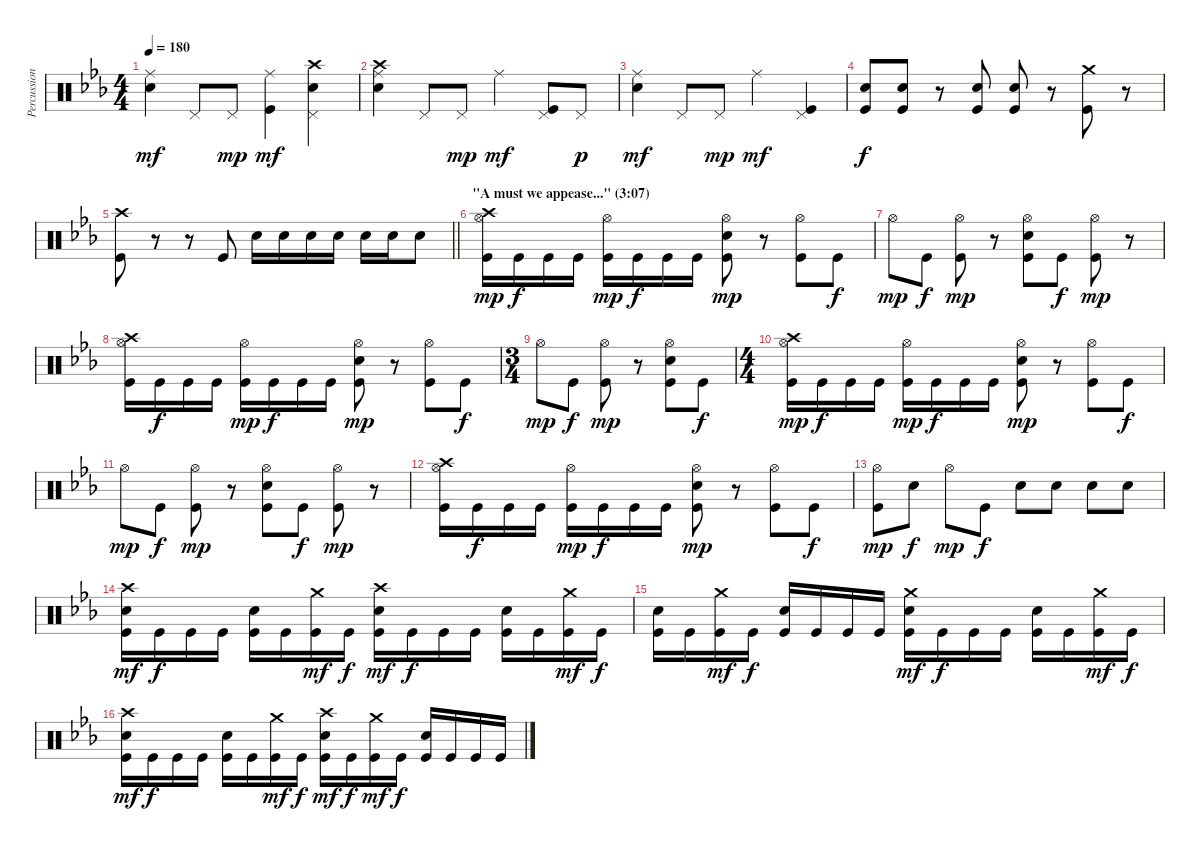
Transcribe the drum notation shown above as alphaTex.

\track ("Percussion" "Percussion") {instrument percussion}
\staff {score}
\articulation defaults
\ts (4 4)
\tempo 180
\clef neutral
\ks cminor
("Ride (middle)" "Snare (hit) 2").4{dy mf} "Pedal Hi-Hat (hit)".8 "Pedal Hi-Hat (hit)".8{dy mp} ("Ride (middle)" "Kick (hit)").4{dy mf} ("Crash high (hit)" "Pedal Hi-Hat (hit)" "Snare (hit) 2").4 |
("Crash high (hit)" "Ride (middle)" "Snare (hit) 2").4 "Pedal Hi-Hat (hit)".8 "Pedal Hi-Hat (hit)".8{dy mp} "Ride (middle)".4{dy mf} ("Pedal Hi-Hat (hit)" "Kick (hit)").8 "Pedal Hi-Hat (hit)".8{dy p} |
("Ride (middle)" "Snare (hit) 2").4{dy mf} "Pedal Hi-Hat (hit)".8 "Pedal Hi-Hat (hit)".8{dy mp} "Ride (middle)".4{dy mf} ("Pedal Hi-Hat (hit)" "Kick (hit)").4 |
("Snare (hit) 2" "Kick (hit)").8{dy f} ("Snare (hit) 2" "Kick (hit)").8 r.8 ("Snare (hit) 2" "Kick (hit)").8 ("Snare (hit) 2" "Kick (hit)").8 r.8 ("Crash medium (hit)" "Kick (hit)").8 r.8 |
\barLineRight lightlight
("Crash high (hit)" "Kick (hit)").8 r.8 r.8 "Kick (hit)".8 "Snare (hit) 2".16 "Snare (hit) 2".16 "Snare (hit) 2".16 "Snare (hit) 2".16 "Snare (hit) 2".16 "Snare (hit) 2".16 "Snare (hit) 2".8 |
\section ("" "\"A must we appease...\" (3:07)")
("Crash high (hit)" "Hi-Hat (open)" "Kick (hit)").16{dy mp} "Kick (hit)".16{dy f} "Kick (hit)".16 "Kick (hit)".16 ("Hi-Hat (open)" "Kick (hit)").16{dy mp} "Kick (hit)".16{dy f} "Kick (hit)".16 "Kick (hit)".16 ("Hi-Hat (open)" "Snare (hit) 2" "Kick (hit)").8{dy mp} r.8 ("Hi-Hat (open)" "Kick (hit)").8 "Kick (hit)".8{dy f} |
"Hi-Hat (open)".8{dy mp} "Kick (hit)".8{dy f} ("Hi-Hat (open)" "Kick (hit)").8{dy mp} r.8 ("Hi-Hat (open)" "Snare (hit) 2" "Kick (hit)").8 "Kick (hit)".8{dy f} ("Hi-Hat (open)" "Kick (hit)").8{dy mp} r.8 |
("Crash high (hit)" "Hi-Hat (open)" "Kick (hit)").16 "Kick (hit)".16{dy f} "Kick (hit)".16 "Kick (hit)".16 ("Hi-Hat (open)" "Kick (hit)").16{dy mp} "Kick (hit)".16{dy f} "Kick (hit)".16 "Kick (hit)".16 ("Hi-Hat (open)" "Snare (hit) 2" "Kick (hit)").8{dy mp} r.8 ("Hi-Hat (open)" "Kick (hit)").8 "Kick (hit)".8{dy f} |
\ts (3 4)
"Hi-Hat (open)".8{dy mp} "Kick (hit)".8{dy f} ("Hi-Hat (open)" "Kick (hit)").8{dy mp} r.8 ("Hi-Hat (open)" "Snare (hit) 2" "Kick (hit)").8 "Kick (hit)".8{dy f} |
\ts (4 4)
("Crash high (hit)" "Hi-Hat (open)" "Kick (hit)").16{dy mp} "Kick (hit)".16{dy f} "Kick (hit)".16 "Kick (hit)".16 ("Hi-Hat (open)" "Kick (hit)").16{dy mp} "Kick (hit)".16{dy f} "Kick (hit)".16 "Kick (hit)".16 ("Hi-Hat (open)" "Snare (hit) 2" "Kick (hit)").8{dy mp} r.8 ("Hi-Hat (open)" "Kick (hit)").8 "Kick (hit)".8{dy f} |
"Hi-Hat (open)".8{dy mp} "Kick (hit)".8{dy f} ("Hi-Hat (open)" "Kick (hit)").8{dy mp} r.8 ("Hi-Hat (open)" "Snare (hit) 2" "Kick (hit)").8 "Kick (hit)".8{dy f} ("Hi-Hat (open)" "Kick (hit)").8{dy mp} r.8 |
("Crash high (hit)" "Hi-Hat (open)" "Kick (hit)").16 "Kick (hit)".16{dy f} "Kick (hit)".16 "Kick (hit)".16 ("Hi-Hat (open)" "Kick (hit)").16{dy mp} "Kick (hit)".16{dy f} "Kick (hit)".16 "Kick (hit)".16 ("Hi-Hat (open)" "Snare (hit) 2" "Kick (hit)").8{dy mp} r.8 ("Hi-Hat (open)" "Kick (hit)").8 "Kick (hit)".8{dy f} |
("Hi-Hat (open)" "Kick (hit)").8{dy mp} "Snare (hit) 2".8{dy f} "Hi-Hat (open)".8{dy mp} "Kick (hit)".8{dy f} "Snare (hit) 2".8 "Snare (hit) 2".8 "Snare (hit) 2".8 "Snare (hit) 2".8 |
("Crash high (hit)" "Snare (hit) 2" "Kick (hit)").16{dy mf} "Kick (hit)".16{dy f} "Kick (hit)".16 "Kick (hit)".16 ("Snare (hit) 2" "Kick (hit)").16 "Kick (hit)".16 ("Crash medium (hit)" "Kick (hit)").16{dy mf} "Kick (hit)".16{dy f} ("Crash high (hit)" "Snare (hit) 2" "Kick (hit)").16{dy mf} "Kick (hit)".16{dy f} "Kick (hit)".16 "Kick (hit)".16 ("Snare (hit) 2" "Kick (hit)").16 "Kick (hit)".16 ("Crash medium (hit)" "Kick (hit)").16{dy mf} "Kick (hit)".16{dy f} |
("Snare (hit) 2" "Kick (hit)").16 "Kick (hit)".16 ("Crash medium (hit)" "Kick (hit)").16{dy mf} "Kick (hit)".16{dy f} ("Snare (hit) 2" "Kick (hit)").16 "Kick (hit)".16 "Kick (hit)".16 "Kick (hit)".16 ("Crash medium (hit)" "Snare (hit) 2" "Kick (hit)").16{dy mf} "Kick (hit)".16{dy f} "Kick (hit)".16 "Kick (hit)".16 ("Snare (hit) 2" "Kick (hit)").16 "Kick (hit)".16 ("Crash medium (hit)" "Kick (hit)").16{dy mf} "Kick (hit)".16{dy f} |
("Crash high (hit)" "Snare (hit) 2" "Kick (hit)").16{dy mf} "Kick (hit)".16{dy f} "Kick (hit)".16 "Kick (hit)".16 ("Snare (hit) 2" "Kick (hit)").16 "Kick (hit)".16 ("Crash medium (hit)" "Kick (hit)").16{dy mf} "Kick (hit)".16{dy f} ("Crash high (hit)" "Snare (hit) 2" "Kick (hit)").16{dy mf} "Kick (hit)".16{dy f} ("Crash medium (hit)" "Kick (hit)").16{dy mf} "Kick (hit)".16{dy f} ("Snare (hit) 2" "Kick (hit)").16 "Kick (hit)".16 "Kick (hit)".16 "Kick (hit)".16
